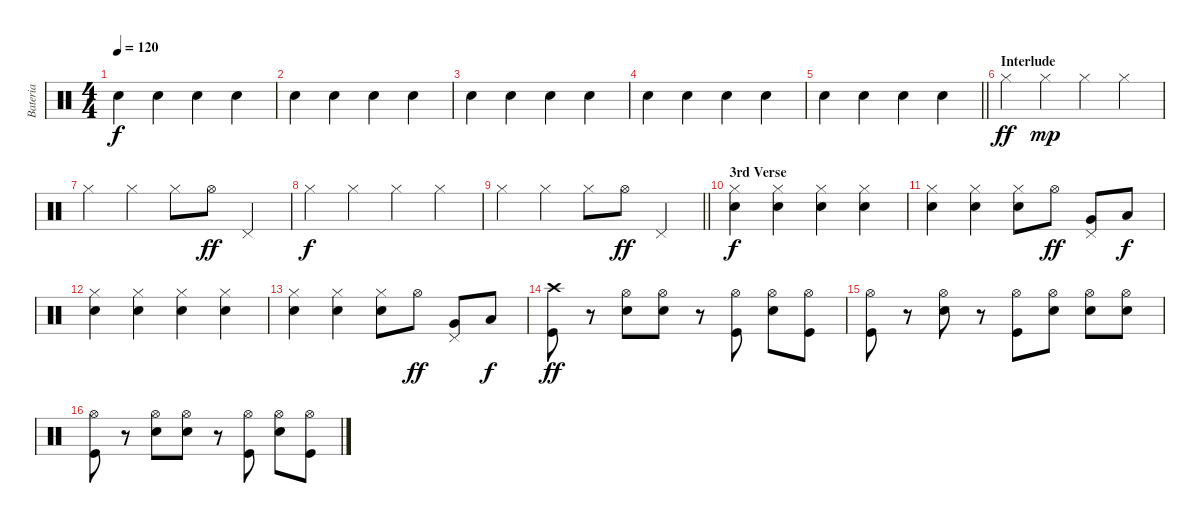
\track ("Bateria" "Bateria") {instrument percussion}
\staff {score}
\articulation defaults
\ts (4 4)
\tempo 120
\clef neutral
\ks c "Snare (hit) 2".4{dy f} "Snare (hit) 2".4 "Snare (hit) 2".4 "Snare (hit) 2".4
|
"Snare (hit) 2".4 "Snare (hit) 2".4 "Snare (hit) 2".4 "Snare (hit) 2".4 |
"Snare (hit) 2".4 "Snare (hit) 2".4 "Snare (hit) 2".4 "Snare (hit) 2".4 |
"Snare (hit) 2".4 "Snare (hit) 2".4 "Snare (hit) 2".4 "Snare (hit) 2".4 |
\barLineRight lightlight "Snare (hit) 2".4 "Snare (hit) 2".4 "Snare (hit) 2".4 "Snare (hit) 2".4
|
\section ("" "Interlude")
"Hi-Hat (closed)".4{dy ff} "Hi-Hat (closed)".4{dy mp} "Hi-Hat (closed)".4 "Hi-Hat (closed)".4 |
"Hi-Hat (closed)".4 "Hi-Hat (closed)".4 "Hi-Hat (closed)".8 "Hi-Hat (open)".8{dy ff} "Pedal Hi-Hat (hit)".4 |
"Hi-Hat (closed)".4{dy f} "Hi-Hat (closed)".4 "Hi-Hat (closed)".4 "Hi-Hat (closed)".4 |
\barLineRight lightlight "Hi-Hat (closed)".4 "Hi-Hat (closed)".4 "Hi-Hat (closed)".8 "Hi-Hat (open)".8{dy ff} "Pedal Hi-Hat (hit)".4
|
\section ("" "3rd Verse")
("Hi-Hat (closed)" "Snare (hit) 2").4{dy f} ("Hi-Hat (closed)" "Snare (hit) 2").4 ("Hi-Hat (closed)" "Snare (hit) 2").4 ("Hi-Hat (closed)" "Snare (hit) 2").4 |
("Hi-Hat (closed)" "Snare (hit) 2").4 ("Hi-Hat (closed)" "Snare (hit) 2").4 ("Hi-Hat (closed)" "Snare (hit) 2").8 "Hi-Hat (open)".8{dy ff} ("Pedal Hi-Hat (hit)" "Very Low Tom (hit)").8 "Low Floor Tom (hit)".8{dy f} |
("Hi-Hat (closed)" "Snare (hit) 2").4 ("Hi-Hat (closed)" "Snare (hit) 2").4 ("Hi-Hat (closed)" "Snare (hit) 2").4 ("Hi-Hat (closed)" "Snare (hit) 2").4 |
("Hi-Hat (closed)" "Snare (hit) 2").4 ("Hi-Hat (closed)" "Snare (hit) 2").4 ("Hi-Hat (closed)" "Snare (hit) 2").8 "Hi-Hat (open)".8{dy ff} ("Pedal Hi-Hat (hit)" "Very Low Tom (hit)").8 "Low Floor Tom (hit)".8{dy f} |
("Crash high (hit)" "Kick (hit)").8{dy ff} r.8 ("Hi-Hat (open)" "Snare (hit) 2").8 ("Hi-Hat (open)" "Snare (hit) 2").8 r.8 ("Hi-Hat (open)" "Kick (hit)").8 ("Hi-Hat (open)" "Snare (hit) 2").8 ("Hi-Hat (open)" "Kick (hit)").8 |
("Hi-Hat (open)" "Kick (hit)").8 r.8 ("Hi-Hat (open)" "Snare (hit) 2").8 r.8 ("Hi-Hat (open)" "Kick (hit)").8 ("Hi-Hat (open)" "Snare (hit) 2").8 ("Hi-Hat (open)" "Snare (hit) 2").8 ("Hi-Hat (open)" "Snare (hit) 2").8 |
("Hi-Hat (open)" "Kick (hit)").8 r.8 ("Hi-Hat (open)" "Snare (hit) 2").8 ("Hi-Hat (open)" "Snare (hit) 2").8 r.8 ("Hi-Hat (open)" "Kick (hit)").8 ("Hi-Hat (open)" "Snare (hit) 2").8 ("Hi-Hat (open)" "Kick (hit)").8
